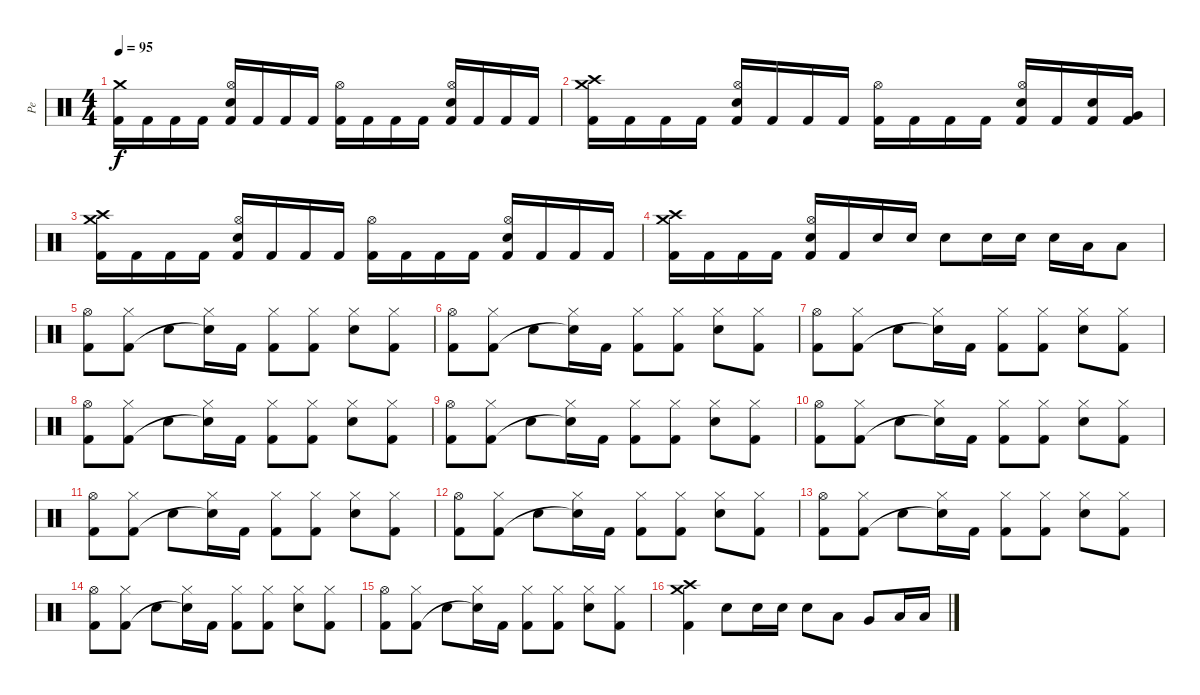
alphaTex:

\track ("Pe" "Pe") {instrument percussion}
\staff {score}
\articulation defaults
\ts (4 4)
\tempo 95
\clef neutral
\ks c
("Crash medium (hit)" "Kick (hit) 2").16{dy f} "Kick (hit) 2".16 "Kick (hit) 2".16 "Kick (hit) 2".16 ("Hi-Hat (open)" "Electric Snare (hit)" "Kick (hit) 2").16 "Kick (hit) 2".16 "Kick (hit) 2".16 "Kick (hit) 2".16 ("Hi-Hat (open)" "Kick (hit) 2").16 "Kick (hit) 2".16 "Kick (hit) 2".16 "Kick (hit) 2".16 ("Hi-Hat (open)" "Electric Snare (hit)" "Kick (hit) 2").16 "Kick (hit) 2".16 "Kick (hit) 2".16 "Kick (hit) 2".16 |
("Crash medium (hit)" "Crash high (hit)" "Kick (hit) 2").16 "Kick (hit) 2".16 "Kick (hit) 2".16 "Kick (hit) 2".16 ("Hi-Hat (open)" "Electric Snare (hit)" "Kick (hit) 2").16 "Kick (hit) 2".16 "Kick (hit) 2".16 "Kick (hit) 2".16 ("Hi-Hat (open)" "Kick (hit) 2").16 "Kick (hit) 2".16 "Kick (hit) 2".16 "Kick (hit) 2".16 ("Hi-Hat (open)" "Electric Snare (hit)" "Kick (hit) 2").16 "Kick (hit) 2".16 ("Electric Snare (hit)" "Kick (hit) 2").16 ("Very Low Tom (hit)" "Kick (hit) 2").16 |
("Crash medium (hit)" "Crash high (hit)" "Kick (hit) 2").16 "Kick (hit) 2".16 "Kick (hit) 2".16 "Kick (hit) 2".16 ("Hi-Hat (open)" "Electric Snare (hit)" "Kick (hit) 2").16 "Kick (hit) 2".16 "Kick (hit) 2".16 "Kick (hit) 2".16 ("Hi-Hat (open)" "Kick (hit) 2").16 "Kick (hit) 2".16 "Kick (hit) 2".16 "Kick (hit) 2".16 ("Hi-Hat (open)" "Electric Snare (hit)" "Kick (hit) 2").16 "Kick (hit) 2".16 "Kick (hit) 2".16 "Kick (hit) 2".16 |
("Crash medium (hit)" "Crash high (hit)" "Kick (hit) 2").16 "Kick (hit) 2".16 "Kick (hit) 2".16 "Kick (hit) 2".16 ("Hi-Hat (open)" "Electric Snare (hit)" "Kick (hit) 2").16 "Kick (hit) 2".16 "Electric Snare (hit)".16 "Electric Snare (hit)".16 "Electric Snare (hit)".8 "Electric Snare (hit)".16 "Electric Snare (hit)".16 "Electric Snare (hit)".16 "Low Tom (hit)".16 "Low Tom (hit)".8 |
("Hi-Hat (open)" "Kick (hit) 2").8{volume 9} ("Hi-Hat (closed)" "Kick (hit) 2").8 "Electric Snare (hit)".8 ("Hi-Hat (closed)" "Snare (hit)"{t}).16 "Kick (hit) 2".16 ("Hi-Hat (closed)" "Kick (hit) 2").8 ("Hi-Hat (closed)" "Kick (hit) 2").8 ("Hi-Hat (closed)" "Electric Snare (hit)").8 ("Hi-Hat (closed)" "Kick (hit) 2").8 |
("Hi-Hat (open)" "Kick (hit) 2").8 ("Hi-Hat (closed)" "Kick (hit) 2").8 "Electric Snare (hit)".8 ("Hi-Hat (closed)" "Snare (hit)"{t}).16 "Kick (hit) 2".16 ("Hi-Hat (closed)" "Kick (hit) 2").8 ("Hi-Hat (closed)" "Kick (hit) 2").8 ("Hi-Hat (closed)" "Electric Snare (hit)").8 ("Hi-Hat (closed)" "Kick (hit) 2").8 |
("Hi-Hat (open)" "Kick (hit) 2").8 ("Hi-Hat (closed)" "Kick (hit) 2").8 "Electric Snare (hit)".8 ("Hi-Hat (closed)" "Snare (hit)"{t}).16 "Kick (hit) 2".16 ("Hi-Hat (closed)" "Kick (hit) 2").8 ("Hi-Hat (closed)" "Kick (hit) 2").8 ("Hi-Hat (closed)" "Electric Snare (hit)").8 ("Hi-Hat (closed)" "Kick (hit) 2").8 |
("Hi-Hat (open)" "Kick (hit) 2").8 ("Hi-Hat (closed)" "Kick (hit) 2").8 "Electric Snare (hit)".8 ("Hi-Hat (closed)" "Snare (hit)"{t}).16 "Kick (hit) 2".16 ("Hi-Hat (closed)" "Kick (hit) 2").8 ("Hi-Hat (closed)" "Kick (hit) 2").8 ("Hi-Hat (closed)" "Electric Snare (hit)").8 ("Hi-Hat (closed)" "Kick (hit) 2").8 |
("Hi-Hat (open)" "Kick (hit) 2").8 ("Hi-Hat (closed)" "Kick (hit) 2").8 "Electric Snare (hit)".8 ("Hi-Hat (closed)" "Snare (hit)"{t}).16 "Kick (hit) 2".16 ("Hi-Hat (closed)" "Kick (hit) 2").8 ("Hi-Hat (closed)" "Kick (hit) 2").8 ("Hi-Hat (closed)" "Electric Snare (hit)").8 ("Hi-Hat (closed)" "Kick (hit) 2").8 |
("Hi-Hat (open)" "Kick (hit) 2").8 ("Hi-Hat (closed)" "Kick (hit) 2").8 "Electric Snare (hit)".8 ("Hi-Hat (closed)" "Snare (hit)"{t}).16 "Kick (hit) 2".16 ("Hi-Hat (closed)" "Kick (hit) 2").8 ("Hi-Hat (closed)" "Kick (hit) 2").8 ("Hi-Hat (closed)" "Electric Snare (hit)").8 ("Hi-Hat (closed)" "Kick (hit) 2").8 |
("Hi-Hat (open)" "Kick (hit) 2").8 ("Hi-Hat (closed)" "Kick (hit) 2").8 "Electric Snare (hit)".8 ("Hi-Hat (closed)" "Snare (hit)"{t}).16 "Kick (hit) 2".16 ("Hi-Hat (closed)" "Kick (hit) 2").8 ("Hi-Hat (closed)" "Kick (hit) 2").8 ("Hi-Hat (closed)" "Electric Snare (hit)").8 ("Hi-Hat (closed)" "Kick (hit) 2").8 |
("Hi-Hat (open)" "Kick (hit) 2").8 ("Hi-Hat (closed)" "Kick (hit) 2").8 "Electric Snare (hit)".8 ("Hi-Hat (closed)" "Snare (hit)"{t}).16 "Kick (hit) 2".16 ("Hi-Hat (closed)" "Kick (hit) 2").8 ("Hi-Hat (closed)" "Kick (hit) 2").8 ("Hi-Hat (closed)" "Electric Snare (hit)").8 ("Hi-Hat (closed)" "Kick (hit) 2").8 |
("Hi-Hat (open)" "Kick (hit) 2").8 ("Hi-Hat (closed)" "Kick (hit) 2").8 "Electric Snare (hit)".8 ("Hi-Hat (closed)" "Snare (hit)"{t}).16 "Kick (hit) 2".16 ("Hi-Hat (closed)" "Kick (hit) 2").8 ("Hi-Hat (closed)" "Kick (hit) 2").8 ("Hi-Hat (closed)" "Electric Snare (hit)").8 ("Hi-Hat (closed)" "Kick (hit) 2").8 |
("Hi-Hat (open)" "Kick (hit) 2").8 ("Hi-Hat (closed)" "Kick (hit) 2").8 "Electric Snare (hit)".8 ("Hi-Hat (closed)" "Snare (hit)"{t}).16 "Kick (hit) 2".16 ("Hi-Hat (closed)" "Kick (hit) 2").8 ("Hi-Hat (closed)" "Kick (hit) 2").8 ("Hi-Hat (closed)" "Electric Snare (hit)").8 ("Hi-Hat (closed)" "Kick (hit) 2").8 |
("Hi-Hat (open)" "Kick (hit) 2").8 ("Hi-Hat (closed)" "Kick (hit) 2").8 "Electric Snare (hit)".8 ("Hi-Hat (closed)" "Snare (hit)"{t}).16 "Kick (hit) 2".16 ("Hi-Hat (closed)" "Kick (hit) 2").8 ("Hi-Hat (closed)" "Kick (hit) 2").8 ("Hi-Hat (closed)" "Electric Snare (hit)").8 ("Hi-Hat (closed)" "Kick (hit) 2").8 |
("Crash medium (hit)" "Crash high (hit)" "Kick (hit) 2").4 "Electric Snare (hit)".8 "Electric Snare (hit)".16 "Electric Snare (hit)".16 "Electric Snare (hit)".8 "Low Tom (hit)".8 "Very Low Tom (hit)".8 "Low Floor Tom (hit)".16 "Low Floor Tom (hit)".16
